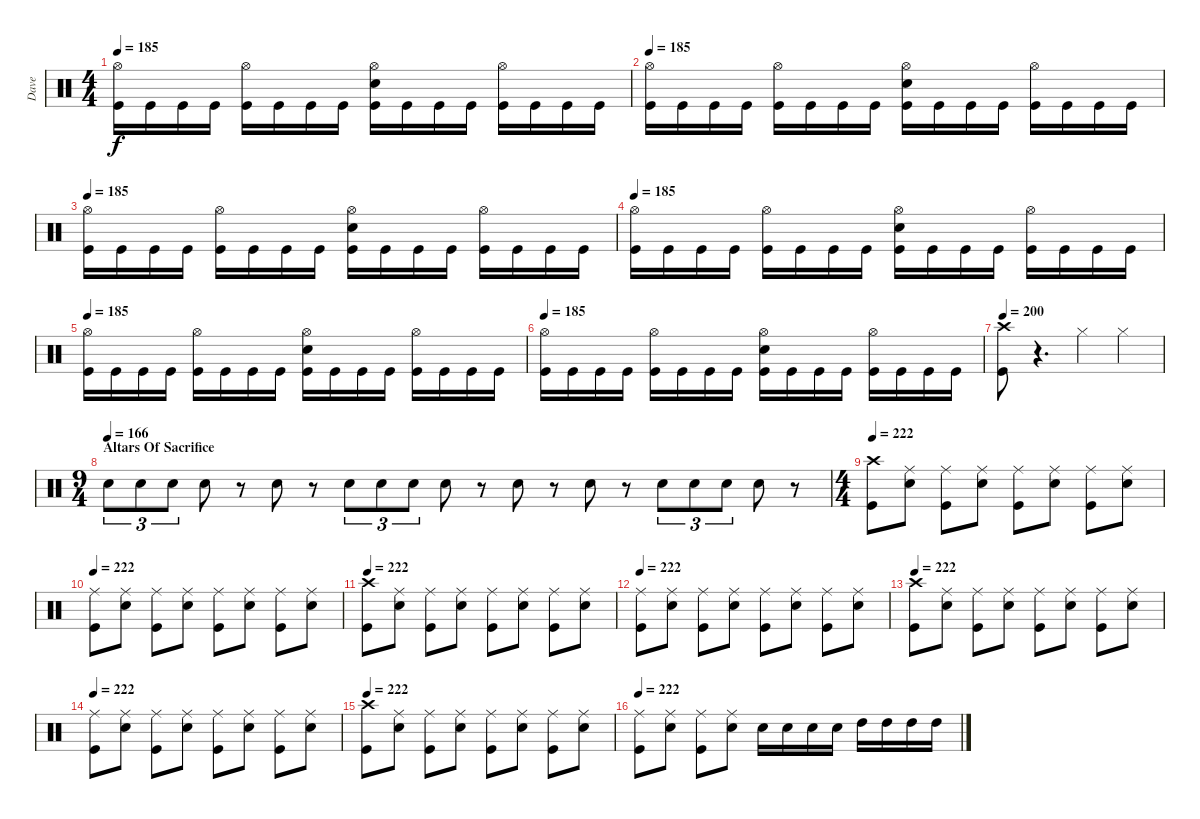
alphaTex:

\track ("Dave" "Dave") {instrument percussion}
\staff {score}
\articulation defaults
\ts (4 4)
\tempo 185
\clef neutral
\ks c
("Hi-Hat (open)" "Kick (hit)").16{dy f} "Kick (hit)".16 "Kick (hit)".16 "Kick (hit)".16 ("Hi-Hat (open)" "Kick (hit)").16 "Kick (hit)".16 "Kick (hit)".16 "Kick (hit)".16 ("Hi-Hat (open)" "Snare (hit) 2" "Kick (hit)").16 "Kick (hit)".16 "Kick (hit)".16 "Kick (hit)".16 ("Hi-Hat (open)" "Kick (hit)").16 "Kick (hit)".16 "Kick (hit)".16 "Kick (hit)".16 |
\tempo 185
("Hi-Hat (open)" "Kick (hit)").16 "Kick (hit)".16 "Kick (hit)".16 "Kick (hit)".16 ("Hi-Hat (open)" "Kick (hit)").16 "Kick (hit)".16 "Kick (hit)".16 "Kick (hit)".16 ("Hi-Hat (open)" "Snare (hit) 2" "Kick (hit)").16 "Kick (hit)".16 "Kick (hit)".16 "Kick (hit)".16 ("Hi-Hat (open)" "Kick (hit)").16 "Kick (hit)".16 "Kick (hit)".16 "Kick (hit)".16 |
\tempo 185
("Hi-Hat (open)" "Kick (hit)").16 "Kick (hit)".16 "Kick (hit)".16 "Kick (hit)".16 ("Hi-Hat (open)" "Kick (hit)").16 "Kick (hit)".16 "Kick (hit)".16 "Kick (hit)".16 ("Hi-Hat (open)" "Snare (hit) 2" "Kick (hit)").16 "Kick (hit)".16 "Kick (hit)".16 "Kick (hit)".16 ("Hi-Hat (open)" "Kick (hit)").16 "Kick (hit)".16 "Kick (hit)".16 "Kick (hit)".16 |
\tempo 185
("Hi-Hat (open)" "Kick (hit)").16 "Kick (hit)".16 "Kick (hit)".16 "Kick (hit)".16 ("Hi-Hat (open)" "Kick (hit)").16 "Kick (hit)".16 "Kick (hit)".16 "Kick (hit)".16 ("Hi-Hat (open)" "Snare (hit) 2" "Kick (hit)").16 "Kick (hit)".16 "Kick (hit)".16 "Kick (hit)".16 ("Hi-Hat (open)" "Kick (hit)").16 "Kick (hit)".16 "Kick (hit)".16 "Kick (hit)".16 |
\tempo 185
("Hi-Hat (open)" "Kick (hit)").16 "Kick (hit)".16 "Kick (hit)".16 "Kick (hit)".16 ("Hi-Hat (open)" "Kick (hit)").16 "Kick (hit)".16 "Kick (hit)".16 "Kick (hit)".16 ("Hi-Hat (open)" "Snare (hit) 2" "Kick (hit)").16 "Kick (hit)".16 "Kick (hit)".16 "Kick (hit)".16 ("Hi-Hat (open)" "Kick (hit)").16 "Kick (hit)".16 "Kick (hit)".16 "Kick (hit)".16 |
\tempo 185
("Hi-Hat (open)" "Kick (hit)").16 "Kick (hit)".16 "Kick (hit)".16 "Kick (hit)".16 ("Hi-Hat (open)" "Kick (hit)").16 "Kick (hit)".16 "Kick (hit)".16 "Kick (hit)".16 ("Hi-Hat (open)" "Snare (hit) 2" "Kick (hit)").16 "Kick (hit)".16 "Kick (hit)".16 "Kick (hit)".16 ("Hi-Hat (open)" "Kick (hit)").16 "Kick (hit)".16 "Kick (hit)".16 "Kick (hit)".16 |
\tempo 200
("Crash high (hit)" "Kick (hit)").8 r.4{d} "Hi-Hat (closed)".4 "Hi-Hat (closed)".4 |
\ts (9 4)
\section ("" "Altars Of Sacrifice")
\tempo (166)
"Snare (hit) 2".8{tu (3 2)} "Snare (hit) 2".8{tu (3 2)} "Snare (hit) 2".8{tu (3 2)} "Snare (hit) 2".8 r.8 "Snare (hit) 2".8 r.8 "Snare (hit) 2".8{tu (3 2)} "Snare (hit) 2".8{tu (3 2)} "Snare (hit) 2".8{tu (3 2)} "Snare (hit) 2".8 r.8 "Snare (hit) 2".8 r.8 "Snare (hit) 2".8 r.8 "Snare (hit) 2".8{tu (3 2)} "Snare (hit) 2".8{tu (3 2)} "Snare (hit) 2".8{tu (3 2)} "Snare (hit) 2".8 r.8 |
\ts (4 4)
\tempo 222
("Crash high (hit)" "Kick (hit)").8 ("Ride (middle)" "Snare (hit) 2").8 ("Ride (middle)" "Kick (hit)").8 ("Ride (middle)" "Snare (hit) 2").8 ("Ride (middle)" "Kick (hit)").8 ("Ride (middle)" "Snare (hit) 2").8 ("Ride (middle)" "Kick (hit)").8 ("Ride (middle)" "Snare (hit) 2").8 |
\tempo 222
("Ride (middle)" "Kick (hit)").8 ("Ride (middle)" "Snare (hit) 2").8 ("Ride (middle)" "Kick (hit)").8 ("Ride (middle)" "Snare (hit) 2").8 ("Ride (middle)" "Kick (hit)").8 ("Ride (middle)" "Snare (hit) 2").8 ("Ride (middle)" "Kick (hit)").8 ("Ride (middle)" "Snare (hit) 2").8 |
\tempo 222
("Crash high (hit)" "Kick (hit)").8 ("Ride (middle)" "Snare (hit) 2").8 ("Ride (middle)" "Kick (hit)").8 ("Ride (middle)" "Snare (hit) 2").8 ("Ride (middle)" "Kick (hit)").8 ("Ride (middle)" "Snare (hit) 2").8 ("Ride (middle)" "Kick (hit)").8 ("Ride (middle)" "Snare (hit) 2").8 |
\tempo 222
("Ride (middle)" "Kick (hit)").8 ("Ride (middle)" "Snare (hit) 2").8 ("Ride (middle)" "Kick (hit)").8 ("Ride (middle)" "Snare (hit) 2").8 ("Ride (middle)" "Kick (hit)").8 ("Ride (middle)" "Snare (hit) 2").8 ("Ride (middle)" "Kick (hit)").8 ("Ride (middle)" "Snare (hit) 2").8 |
\tempo 222
("Crash high (hit)" "Kick (hit)").8 ("Ride (middle)" "Snare (hit) 2").8 ("Ride (middle)" "Kick (hit)").8 ("Ride (middle)" "Snare (hit) 2").8 ("Ride (middle)" "Kick (hit)").8 ("Ride (middle)" "Snare (hit) 2").8 ("Ride (middle)" "Kick (hit)").8 ("Ride (middle)" "Snare (hit) 2").8 |
\tempo 222
("Ride (middle)" "Kick (hit)").8 ("Ride (middle)" "Snare (hit) 2").8 ("Ride (middle)" "Kick (hit)").8 ("Ride (middle)" "Snare (hit) 2").8 ("Ride (middle)" "Kick (hit)").8 ("Ride (middle)" "Snare (hit) 2").8 ("Ride (middle)" "Kick (hit)").8 ("Ride (middle)" "Snare (hit) 2").8 |
\tempo 222
("Crash high (hit)" "Kick (hit)").8 ("Ride (middle)" "Snare (hit) 2").8 ("Ride (middle)" "Kick (hit)").8 ("Ride (middle)" "Snare (hit) 2").8 ("Ride (middle)" "Kick (hit)").8 ("Ride (middle)" "Snare (hit) 2").8 ("Ride (middle)" "Kick (hit)").8 ("Ride (middle)" "Snare (hit) 2").8 |
\tempo 222
("Ride (middle)" "Kick (hit)").8 ("Ride (middle)" "Snare (hit) 2").8 ("Ride (middle)" "Kick (hit)").8 ("Ride (middle)" "Snare (hit) 2").8 "Snare (hit) 2".16 "Snare (hit) 2".16 "Snare (hit) 2".16 "Snare (hit) 2".16 "High Tom (hit)".16 "High Tom (hit)".16 "High Tom (hit)".16 "High Tom (hit)".16
